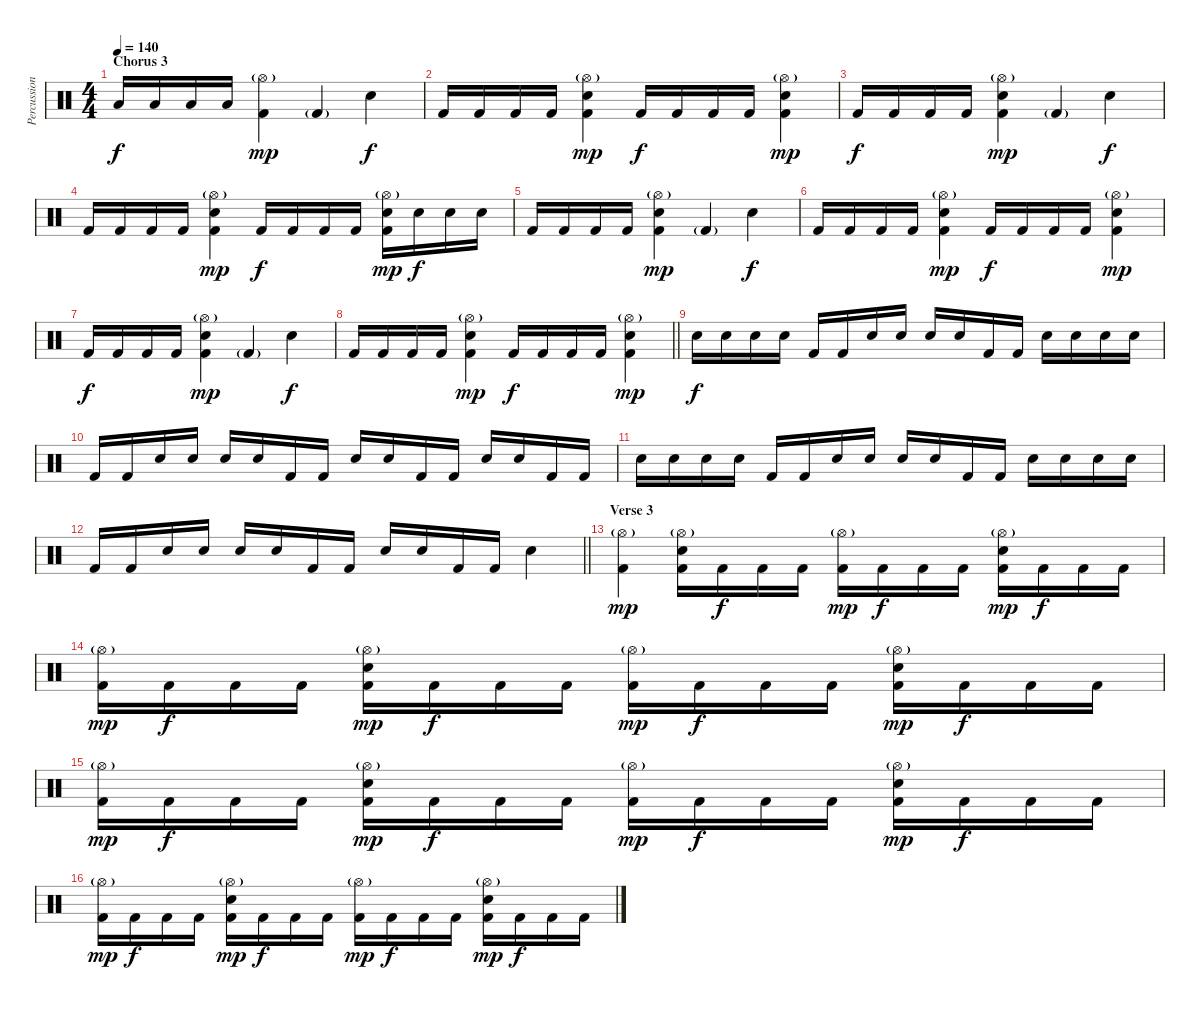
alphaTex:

\track ("Percussions" "Percussion") {instrument percussion}
\staff {score}
\articulation defaults
\ts (4 4)
\section ("" "Chorus 3")
\tempo 140
\clef neutral
\ks c "Low Floor Tom (hit)".16{dy f} "Low Floor Tom (hit)".16 "Low Floor Tom (hit)".16 "Low Floor Tom (hit)".16
("Hi-Hat (open)"{g} "Kick (hit) 2").4{dy mp} "Kick (hit) 2"{g}.4 "Electric Snare (hit)".4{dy f} |
"Kick (hit) 2".16 "Kick (hit) 2".16 "Kick (hit) 2".16 "Kick (hit) 2".16 ("Hi-Hat (open)"{g} "Electric Snare (hit)" "Kick (hit) 2").4{dy mp} "Kick (hit) 2".16{dy f} "Kick (hit) 2".16 "Kick (hit) 2".16 "Kick (hit) 2".16 ("Hi-Hat (open)"{g} "Electric Snare (hit)" "Kick (hit) 2").4{dy mp} |
"Kick (hit) 2".16{dy f} "Kick (hit) 2".16 "Kick (hit) 2".16 "Kick (hit) 2".16 ("Hi-Hat (open)"{g} "Electric Snare (hit)" "Kick (hit) 2").4{dy mp} "Kick (hit) 2"{g}.4 "Electric Snare (hit)".4{dy f} |
"Kick (hit) 2".16 "Kick (hit) 2".16 "Kick (hit) 2".16 "Kick (hit) 2".16 ("Hi-Hat (open)"{g} "Electric Snare (hit)" "Kick (hit) 2").4{dy mp} "Kick (hit) 2".16{dy f} "Kick (hit) 2".16 "Kick (hit) 2".16 "Kick (hit) 2".16 ("Hi-Hat (open)"{g} "Electric Snare (hit)" "Kick (hit) 2").16{dy mp} "Electric Snare (hit)".16{dy f} "Electric Snare (hit)".16 "Electric Snare (hit)".16 |
"Kick (hit) 2".16 "Kick (hit) 2".16 "Kick (hit) 2".16 "Kick (hit) 2".16 ("Hi-Hat (open)"{g} "Electric Snare (hit)" "Kick (hit) 2").4{dy mp} "Kick (hit) 2"{g}.4 "Electric Snare (hit)".4{dy f} |
"Kick (hit) 2".16 "Kick (hit) 2".16 "Kick (hit) 2".16 "Kick (hit) 2".16 ("Hi-Hat (open)"{g} "Electric Snare (hit)" "Kick (hit) 2").4{dy mp} "Kick (hit) 2".16{dy f} "Kick (hit) 2".16 "Kick (hit) 2".16 "Kick (hit) 2".16 ("Hi-Hat (open)"{g} "Electric Snare (hit)" "Kick (hit) 2").4{dy mp} |
"Kick (hit) 2".16{dy f} "Kick (hit) 2".16 "Kick (hit) 2".16 "Kick (hit) 2".16 ("Hi-Hat (open)"{g} "Electric Snare (hit)" "Kick (hit) 2").4{dy mp} "Kick (hit) 2"{g}.4 "Electric Snare (hit)".4{dy f} |
\barLineRight lightlight "Kick (hit) 2".16 "Kick (hit) 2".16 "Kick (hit) 2".16 "Kick (hit) 2".16
("Hi-Hat (open)"{g} "Electric Snare (hit)" "Kick (hit) 2").4{dy mp} "Kick (hit) 2".16{dy f} "Kick (hit) 2".16 "Kick (hit) 2".16 "Kick (hit) 2".16 ("Hi-Hat (open)"{g} "Electric Snare (hit)" "Kick (hit) 2").4{dy mp} |
"Electric Snare (hit)".16{dy f} "Electric Snare (hit)".16 "Electric Snare (hit)".16 "Electric Snare (hit)".16 "Kick (hit) 2".16 "Kick (hit) 2".16 "Electric Snare (hit)".16 "Electric Snare (hit)".16 "Electric Snare (hit)".16 "Electric Snare (hit)".16 "Kick (hit) 2".16 "Kick (hit) 2".16 "Electric Snare (hit)".16 "Electric Snare (hit)".16 "Electric Snare (hit)".16 "Electric Snare (hit)".16 |
"Kick (hit) 2".16 "Kick (hit) 2".16 "Electric Snare (hit)".16 "Electric Snare (hit)".16 "Electric Snare (hit)".16 "Electric Snare (hit)".16 "Kick (hit) 2".16 "Kick (hit) 2".16 "Electric Snare (hit)".16 "Electric Snare (hit)".16 "Kick (hit) 2".16 "Kick (hit) 2".16 "Electric Snare (hit)".16 "Electric Snare (hit)".16 "Kick (hit) 2".16 "Kick (hit) 2".16 |
"Electric Snare (hit)".16 "Electric Snare (hit)".16 "Electric Snare (hit)".16 "Electric Snare (hit)".16 "Kick (hit) 2".16 "Kick (hit) 2".16 "Electric Snare (hit)".16 "Electric Snare (hit)".16 "Electric Snare (hit)".16 "Electric Snare (hit)".16 "Kick (hit) 2".16 "Kick (hit) 2".16 "Electric Snare (hit)".16 "Electric Snare (hit)".16 "Electric Snare (hit)".16 "Electric Snare (hit)".16 |
\barLineRight lightlight "Kick (hit) 2".16 "Kick (hit) 2".16 "Electric Snare (hit)".16 "Electric Snare (hit)".16 "Electric Snare (hit)".16 "Electric Snare (hit)".16 "Kick (hit) 2".16 "Kick (hit) 2".16 "Electric Snare (hit)".16 "Electric Snare (hit)".16 "Kick (hit) 2".16 "Kick (hit) 2".16 "Electric Snare (hit)".4
|
\section ("" "Verse 3")
("Hi-Hat (open)"{g} "Kick (hit) 2").4{dy mp} ("Hi-Hat (open)"{g} "Electric Snare (hit)" "Kick (hit) 2").16 "Kick (hit) 2".16{dy f} "Kick (hit) 2".16 "Kick (hit) 2".16 ("Hi-Hat (open)"{g} "Kick (hit) 2").16{dy mp} "Kick (hit) 2".16{dy f} "Kick (hit) 2".16 "Kick (hit) 2".16 ("Hi-Hat (open)"{g} "Electric Snare (hit)" "Kick (hit) 2").16{dy mp} "Kick (hit) 2".16{dy f} "Kick (hit) 2".16 "Kick (hit) 2".16 |
("Hi-Hat (open)"{g} "Kick (hit) 2").16{dy mp} "Kick (hit) 2".16{dy f} "Kick (hit) 2".16 "Kick (hit) 2".16 ("Hi-Hat (open)"{g} "Electric Snare (hit)" "Kick (hit) 2").16{dy mp} "Kick (hit) 2".16{dy f} "Kick (hit) 2".16 "Kick (hit) 2".16 ("Hi-Hat (open)"{g} "Kick (hit) 2").16{dy mp} "Kick (hit) 2".16{dy f} "Kick (hit) 2".16 "Kick (hit) 2".16 ("Hi-Hat (open)"{g} "Electric Snare (hit)" "Kick (hit) 2").16{dy mp} "Kick (hit) 2".16{dy f} "Kick (hit) 2".16 "Kick (hit) 2".16 |
("Hi-Hat (open)"{g} "Kick (hit) 2").16{dy mp} "Kick (hit) 2".16{dy f} "Kick (hit) 2".16 "Kick (hit) 2".16 ("Hi-Hat (open)"{g} "Electric Snare (hit)" "Kick (hit) 2").16{dy mp} "Kick (hit) 2".16{dy f} "Kick (hit) 2".16 "Kick (hit) 2".16 ("Hi-Hat (open)"{g} "Kick (hit) 2").16{dy mp} "Kick (hit) 2".16{dy f} "Kick (hit) 2".16 "Kick (hit) 2".16 ("Hi-Hat (open)"{g} "Electric Snare (hit)" "Kick (hit) 2").16{dy mp} "Kick (hit) 2".16{dy f} "Kick (hit) 2".16 "Kick (hit) 2".16 |
("Hi-Hat (open)"{g} "Kick (hit) 2").16{dy mp} "Kick (hit) 2".16{dy f} "Kick (hit) 2".16 "Kick (hit) 2".16 ("Hi-Hat (open)"{g} "Electric Snare (hit)" "Kick (hit) 2").16{dy mp} "Kick (hit) 2".16{dy f} "Kick (hit) 2".16 "Kick (hit) 2".16 ("Hi-Hat (open)"{g} "Kick (hit) 2").16{dy mp} "Kick (hit) 2".16{dy f} "Kick (hit) 2".16 "Kick (hit) 2".16 ("Hi-Hat (open)"{g} "Electric Snare (hit)" "Kick (hit) 2").16{dy mp} "Kick (hit) 2".16{dy f} "Kick (hit) 2".16 "Kick (hit) 2".16
